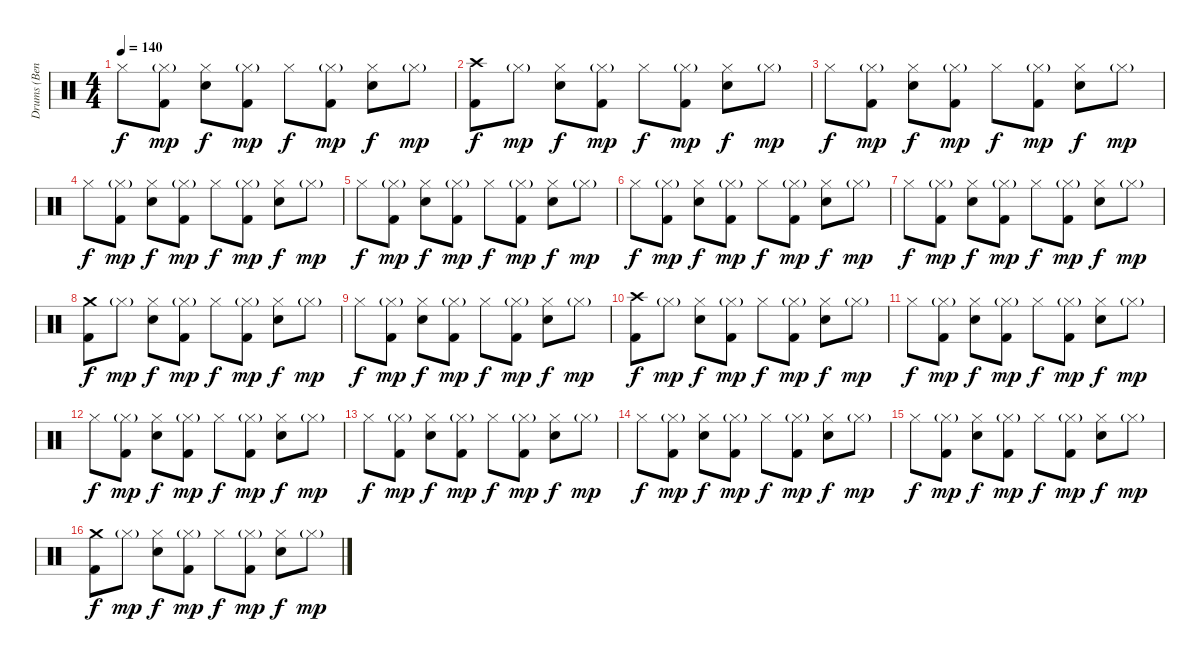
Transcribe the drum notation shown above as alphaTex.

\track ("Drums (Bengerg)" "Drums (Ben") {instrument percussion}
\staff {score}
\articulation defaults
\ts (4 4)
\tempo 140
\clef neutral
\ks c "Hi-Hat (closed)".8{dy f}
("Hi-Hat (closed)"{g} "Kick (hit) 2").8{dy mp} ("Hi-Hat (closed)" "Electric Snare (hit)").8{dy f} ("Hi-Hat (closed)"{g} "Kick (hit) 2").8{dy mp} "Hi-Hat (closed)".8{dy f} ("Hi-Hat (closed)"{g} "Kick (hit) 2").8{dy mp} ("Hi-Hat (closed)" "Electric Snare (hit)").8{dy f} "Hi-Hat (closed)"{g}.8{dy mp} |
("Crash high (hit)" "Kick (hit) 2").8{dy f} "Hi-Hat (closed)"{g}.8{dy mp} ("Hi-Hat (closed)" "Electric Snare (hit)").8{dy f} ("Hi-Hat (closed)"{g} "Kick (hit) 2").8{dy mp} "Hi-Hat (closed)".8{dy f} ("Hi-Hat (closed)"{g} "Kick (hit) 2").8{dy mp} ("Hi-Hat (closed)" "Electric Snare (hit)").8{dy f} "Hi-Hat (closed)"{g}.8{dy mp} |
"Hi-Hat (closed)".8{dy f} ("Hi-Hat (closed)"{g} "Kick (hit) 2").8{dy mp} ("Hi-Hat (closed)" "Electric Snare (hit)").8{dy f} ("Hi-Hat (closed)"{g} "Kick (hit) 2").8{dy mp} "Hi-Hat (closed)".8{dy f} ("Hi-Hat (closed)"{g} "Kick (hit) 2").8{dy mp} ("Hi-Hat (closed)" "Electric Snare (hit)").8{dy f} "Hi-Hat (closed)"{g}.8{dy mp} |
"Hi-Hat (closed)".8{dy f} ("Hi-Hat (closed)"{g} "Kick (hit) 2").8{dy mp} ("Hi-Hat (closed)" "Electric Snare (hit)").8{dy f} ("Hi-Hat (closed)"{g} "Kick (hit) 2").8{dy mp} "Hi-Hat (closed)".8{dy f} ("Hi-Hat (closed)"{g} "Kick (hit) 2").8{dy mp} ("Hi-Hat (closed)" "Electric Snare (hit)").8{dy f} "Hi-Hat (closed)"{g}.8{dy mp} |
"Hi-Hat (closed)".8{dy f} ("Hi-Hat (closed)"{g} "Kick (hit) 2").8{dy mp} ("Hi-Hat (closed)" "Electric Snare (hit)").8{dy f} ("Hi-Hat (closed)"{g} "Kick (hit) 2").8{dy mp} "Hi-Hat (closed)".8{dy f} ("Hi-Hat (closed)"{g} "Kick (hit) 2").8{dy mp} ("Hi-Hat (closed)" "Electric Snare (hit)").8{dy f} "Hi-Hat (closed)"{g}.8{dy mp} |
"Hi-Hat (closed)".8{dy f} ("Hi-Hat (closed)"{g} "Kick (hit) 2").8{dy mp} ("Hi-Hat (closed)" "Electric Snare (hit)").8{dy f} ("Hi-Hat (closed)"{g} "Kick (hit) 2").8{dy mp} "Hi-Hat (closed)".8{dy f} ("Hi-Hat (closed)"{g} "Kick (hit) 2").8{dy mp} ("Hi-Hat (closed)" "Electric Snare (hit)").8{dy f} "Hi-Hat (closed)"{g}.8{dy mp} |
"Hi-Hat (closed)".8{dy f} ("Hi-Hat (closed)"{g} "Kick (hit) 2").8{dy mp} ("Hi-Hat (closed)" "Electric Snare (hit)").8{dy f} ("Hi-Hat (closed)"{g} "Kick (hit) 2").8{dy mp} "Hi-Hat (closed)".8{dy f} ("Hi-Hat (closed)"{g} "Kick (hit) 2").8{dy mp} ("Hi-Hat (closed)" "Electric Snare (hit)").8{dy f} "Hi-Hat (closed)"{g}.8{dy mp} |
("Crash medium (hit)" "Kick (hit) 2").8{dy f} "Hi-Hat (closed)"{g}.8{dy mp} ("Hi-Hat (closed)" "Electric Snare (hit)").8{dy f} ("Hi-Hat (closed)"{g} "Kick (hit) 2").8{dy mp} "Hi-Hat (closed)".8{dy f} ("Hi-Hat (closed)"{g} "Kick (hit) 2").8{dy mp} ("Hi-Hat (closed)" "Electric Snare (hit)").8{dy f} "Hi-Hat (closed)"{g}.8{dy mp} |
"Hi-Hat (closed)".8{dy f} ("Hi-Hat (closed)"{g} "Kick (hit) 2").8{dy mp} ("Hi-Hat (closed)" "Electric Snare (hit)").8{dy f} ("Hi-Hat (closed)"{g} "Kick (hit) 2").8{dy mp} "Hi-Hat (closed)".8{dy f} ("Hi-Hat (closed)"{g} "Kick (hit) 2").8{dy mp} ("Hi-Hat (closed)" "Electric Snare (hit)").8{dy f} "Hi-Hat (closed)"{g}.8{dy mp} |
("Crash high (hit)" "Kick (hit) 2").8{dy f} "Hi-Hat (closed)"{g}.8{dy mp} ("Hi-Hat (closed)" "Electric Snare (hit)").8{dy f} ("Hi-Hat (closed)"{g} "Kick (hit) 2").8{dy mp} "Hi-Hat (closed)".8{dy f} ("Hi-Hat (closed)"{g} "Kick (hit) 2").8{dy mp} ("Hi-Hat (closed)" "Electric Snare (hit)").8{dy f} "Hi-Hat (closed)"{g}.8{dy mp} |
"Hi-Hat (closed)".8{dy f} ("Hi-Hat (closed)"{g} "Kick (hit) 2").8{dy mp} ("Hi-Hat (closed)" "Electric Snare (hit)").8{dy f} ("Hi-Hat (closed)"{g} "Kick (hit) 2").8{dy mp} "Hi-Hat (closed)".8{dy f} ("Hi-Hat (closed)"{g} "Kick (hit) 2").8{dy mp} ("Hi-Hat (closed)" "Electric Snare (hit)").8{dy f} "Hi-Hat (closed)"{g}.8{dy mp} |
"Hi-Hat (closed)".8{dy f} ("Hi-Hat (closed)"{g} "Kick (hit) 2").8{dy mp} ("Hi-Hat (closed)" "Electric Snare (hit)").8{dy f} ("Hi-Hat (closed)"{g} "Kick (hit) 2").8{dy mp} "Hi-Hat (closed)".8{dy f} ("Hi-Hat (closed)"{g} "Kick (hit) 2").8{dy mp} ("Hi-Hat (closed)" "Electric Snare (hit)").8{dy f} "Hi-Hat (closed)"{g}.8{dy mp} |
"Hi-Hat (closed)".8{dy f} ("Hi-Hat (closed)"{g} "Kick (hit) 2").8{dy mp} ("Hi-Hat (closed)" "Electric Snare (hit)").8{dy f} ("Hi-Hat (closed)"{g} "Kick (hit) 2").8{dy mp} "Hi-Hat (closed)".8{dy f} ("Hi-Hat (closed)"{g} "Kick (hit) 2").8{dy mp} ("Hi-Hat (closed)" "Electric Snare (hit)").8{dy f} "Hi-Hat (closed)"{g}.8{dy mp} |
"Hi-Hat (closed)".8{dy f} ("Hi-Hat (closed)"{g} "Kick (hit) 2").8{dy mp} ("Hi-Hat (closed)" "Electric Snare (hit)").8{dy f} ("Hi-Hat (closed)"{g} "Kick (hit) 2").8{dy mp} "Hi-Hat (closed)".8{dy f} ("Hi-Hat (closed)"{g} "Kick (hit) 2").8{dy mp} ("Hi-Hat (closed)" "Electric Snare (hit)").8{dy f} "Hi-Hat (closed)"{g}.8{dy mp} |
"Hi-Hat (closed)".8{dy f} ("Hi-Hat (closed)"{g} "Kick (hit) 2").8{dy mp} ("Hi-Hat (closed)" "Electric Snare (hit)").8{dy f} ("Hi-Hat (closed)"{g} "Kick (hit) 2").8{dy mp} "Hi-Hat (closed)".8{dy f} ("Hi-Hat (closed)"{g} "Kick (hit) 2").8{dy mp} ("Hi-Hat (closed)" "Electric Snare (hit)").8{dy f} "Hi-Hat (closed)"{g}.8{dy mp} |
("Crash medium (hit)" "Kick (hit) 2").8{dy f} "Hi-Hat (closed)"{g}.8{dy mp} ("Hi-Hat (closed)" "Electric Snare (hit)").8{dy f} ("Hi-Hat (closed)"{g} "Kick (hit) 2").8{dy mp} "Hi-Hat (closed)".8{dy f} ("Hi-Hat (closed)"{g} "Kick (hit) 2").8{dy mp} ("Hi-Hat (closed)" "Electric Snare (hit)").8{dy f} "Hi-Hat (closed)"{g}.8{dy mp}
